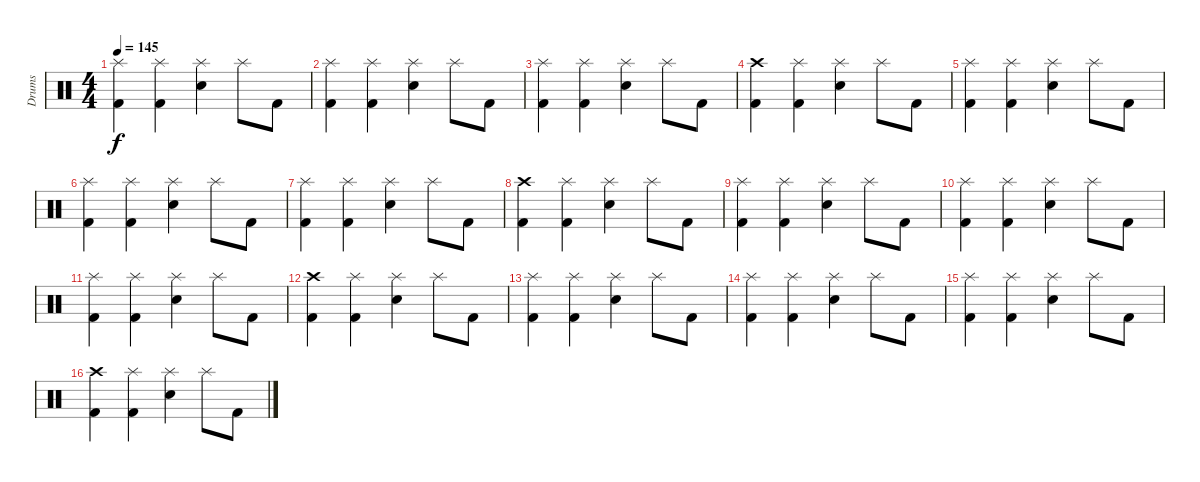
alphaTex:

\track ("Drums" "Drums") {instrument percussion}
\staff {score}
\articulation defaults
\ts (4 4)
\tempo 145
\clef neutral
\ks c
("Kick (hit) 2" "Splash (hit)").4{dy f} ("Kick (hit) 2" "Splash (hit)").4 ("Snare (hit) 2" "Splash (hit)").4 "Splash (hit)".8 "Kick (hit) 2".8 |
("Kick (hit) 2" "Splash (hit)").4 ("Kick (hit) 2" "Splash (hit)").4 ("Snare (hit) 2" "Splash (hit)").4 "Splash (hit)".8 "Kick (hit) 2".8 |
("Kick (hit) 2" "Splash (hit)").4 ("Kick (hit) 2" "Splash (hit)").4 ("Snare (hit) 2" "Splash (hit)").4 "Splash (hit)".8 "Kick (hit) 2".8 |
("Kick (hit) 2" "Crash high (hit)").4{volume 8} ("Kick (hit) 2" "Splash (hit)").4 ("Snare (hit) 2" "Splash (hit)").4 "Splash (hit)".8 "Kick (hit) 2".8 |
("Kick (hit) 2" "Splash (hit)").4 ("Kick (hit) 2" "Splash (hit)").4 ("Snare (hit) 2" "Splash (hit)").4 "Splash (hit)".8 "Kick (hit) 2".8 |
("Kick (hit) 2" "Splash (hit)").4 ("Kick (hit) 2" "Splash (hit)").4 ("Snare (hit) 2" "Splash (hit)").4 "Splash (hit)".8 "Kick (hit) 2".8 |
("Kick (hit) 2" "Splash (hit)").4 ("Kick (hit) 2" "Splash (hit)").4 ("Snare (hit) 2" "Splash (hit)").4 "Splash (hit)".8 "Kick (hit) 2".8 |
("Kick (hit) 2" "Crash high (hit)").4{volume 6} ("Kick (hit) 2" "Splash (hit)").4 ("Snare (hit) 2" "Splash (hit)").4 "Splash (hit)".8 "Kick (hit) 2".8 |
("Kick (hit) 2" "Splash (hit)").4 ("Kick (hit) 2" "Splash (hit)").4 ("Snare (hit) 2" "Splash (hit)").4 "Splash (hit)".8 "Kick (hit) 2".8 |
("Kick (hit) 2" "Splash (hit)").4 ("Kick (hit) 2" "Splash (hit)").4 ("Snare (hit) 2" "Splash (hit)").4 "Splash (hit)".8 "Kick (hit) 2".8 |
("Kick (hit) 2" "Splash (hit)").4 ("Kick (hit) 2" "Splash (hit)").4 ("Snare (hit) 2" "Splash (hit)").4 "Splash (hit)".8 "Kick (hit) 2".8 |
("Kick (hit) 2" "Crash high (hit)").4{volume 4} ("Kick (hit) 2" "Splash (hit)").4 ("Snare (hit) 2" "Splash (hit)").4 "Splash (hit)".8 "Kick (hit) 2".8 |
("Kick (hit) 2" "Splash (hit)").4 ("Kick (hit) 2" "Splash (hit)").4 ("Snare (hit) 2" "Splash (hit)").4 "Splash (hit)".8 "Kick (hit) 2".8 |
("Kick (hit) 2" "Splash (hit)").4 ("Kick (hit) 2" "Splash (hit)").4 ("Snare (hit) 2" "Splash (hit)").4 "Splash (hit)".8 "Kick (hit) 2".8 |
("Kick (hit) 2" "Splash (hit)").4 ("Kick (hit) 2" "Splash (hit)").4 ("Snare (hit) 2" "Splash (hit)").4 "Splash (hit)".8 "Kick (hit) 2".8 |
("Kick (hit) 2" "Crash high (hit)").4{volume 2} ("Kick (hit) 2" "Splash (hit)").4 ("Snare (hit) 2" "Splash (hit)").4 "Splash (hit)".8 "Kick (hit) 2".8
